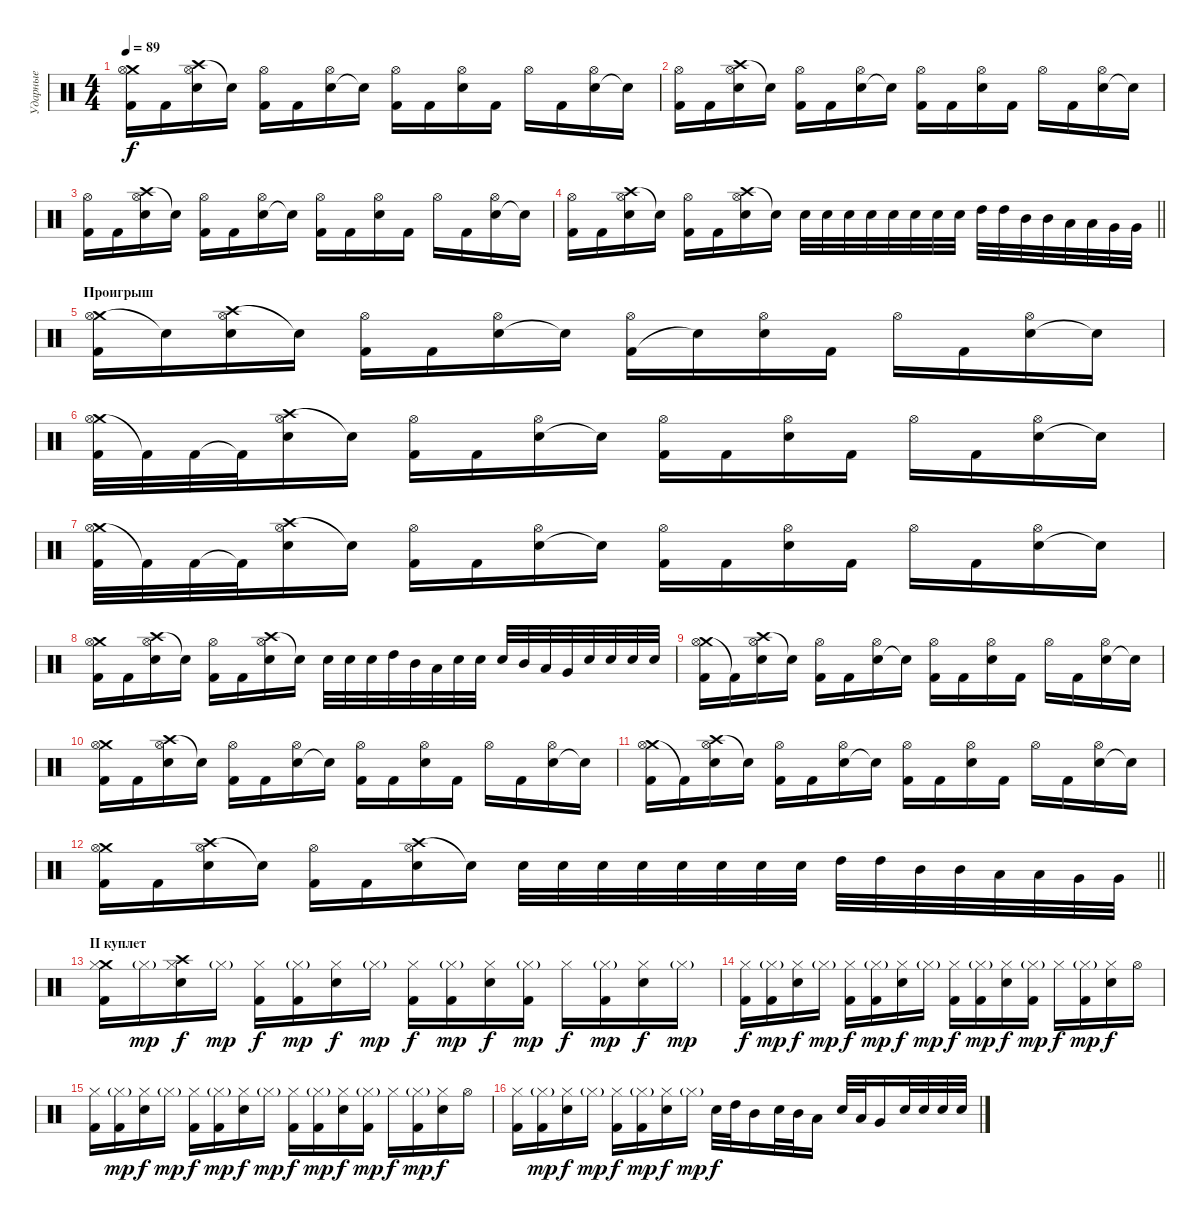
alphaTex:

\track ("Ударные" "Ударные") {instrument percussion}
\staff {score}
\articulation defaults
\ts (4 4)
\tempo 89
\clef neutral
\ks c
("Crash medium (hit)" "Kick (hit) 2" "Hi-Hat (open)").16{dy f} "Kick (hit) 2".16 ("Crash high (hit)" "Electric Snare (hit)" "Hi-Hat (open)").16 "Snare (hit)"{t}.16 ("Kick (hit) 2" "Hi-Hat (open)").16 "Kick (hit) 2".16 ("Electric Snare (hit)" "Hi-Hat (open)").16 "Snare (hit)"{t}.16 ("Kick (hit) 2" "Hi-Hat (open)").16 "Kick (hit) 2".16 ("Electric Snare (hit)" "Hi-Hat (open)").16 "Kick (hit) 2".16 "Hi-Hat (open)".16 "Kick (hit) 2".16 ("Electric Snare (hit)" "Hi-Hat (open)").16 "Snare (hit)"{t}.16 |
("Kick (hit) 2" "Hi-Hat (open)").16 "Kick (hit) 2".16 ("Crash high (hit)" "Electric Snare (hit)" "Hi-Hat (open)").16 "Snare (hit)"{t}.16 ("Kick (hit) 2" "Hi-Hat (open)").16 "Kick (hit) 2".16 ("Electric Snare (hit)" "Hi-Hat (open)").16 "Snare (hit)"{t}.16 ("Kick (hit) 2" "Hi-Hat (open)").16 "Kick (hit) 2".16 ("Electric Snare (hit)" "Hi-Hat (open)").16 "Kick (hit) 2".16 "Hi-Hat (open)".16 "Kick (hit) 2".16 ("Electric Snare (hit)" "Hi-Hat (open)").16 "Snare (hit)"{t}.16 |
("Kick (hit) 2" "Hi-Hat (open)").16 "Kick (hit) 2".16 ("Crash high (hit)" "Electric Snare (hit)" "Hi-Hat (open)").16 "Snare (hit)"{t}.16 ("Kick (hit) 2" "Hi-Hat (open)").16 "Kick (hit) 2".16 ("Electric Snare (hit)" "Hi-Hat (open)").16 "Snare (hit)"{t}.16 ("Kick (hit) 2" "Hi-Hat (open)").16 "Kick (hit) 2".16 ("Electric Snare (hit)" "Hi-Hat (open)").16 "Kick (hit) 2".16 "Hi-Hat (open)".16 "Kick (hit) 2".16 ("Electric Snare (hit)" "Hi-Hat (open)").16 "Snare (hit)"{t}.16 |
\barLineRight lightlight
("Kick (hit) 2" "Hi-Hat (open)").16 "Kick (hit) 2".16 ("Crash high (hit)" "Electric Snare (hit)" "Hi-Hat (open)").16 "Snare (hit)"{t}.16 ("Kick (hit) 2" "Hi-Hat (open)").16 "Kick (hit) 2".16 ("Crash high (hit)" "Electric Snare (hit)" "Hi-Hat (open)").16 "Snare (hit)"{t}.16 "Electric Snare (hit)".32 "Electric Snare (hit)".32 "Electric Snare (hit)".32 "Electric Snare (hit)".32 "Electric Snare (hit)".32 "Electric Snare (hit)".32 "Electric Snare (hit)".32 "Electric Snare (hit)".32 "High Tom (hit)".32 "High Tom (hit)".32 "Mid Tom (hit)".32 "Mid Tom (hit)".32 "Low Tom (hit)".32 "Low Tom (hit)".32 "Very Low Tom (hit)".32 "Very Low Tom (hit)".32 |
\section ("" "Проигрыш")
("Crash medium (hit)" "Kick (hit) 2" "Hi-Hat (open)").16 "Snare (hit)"{t}.16 ("Crash high (hit)" "Electric Snare (hit)" "Hi-Hat (open)").16 "Snare (hit)"{t}.16 ("Kick (hit) 2" "Hi-Hat (open)").16 "Kick (hit) 2".16 ("Electric Snare (hit)" "Hi-Hat (open)").16 "Snare (hit)"{t}.16 ("Kick (hit) 2" "Hi-Hat (open)").16 "Snare (hit)"{t}.16 ("Electric Snare (hit)" "Hi-Hat (open)").16 "Kick (hit) 2".16 "Hi-Hat (open)".16 "Kick (hit) 2".16 ("Electric Snare (hit)" "Hi-Hat (open)").16 "Snare (hit)"{t}.16 |
("Crash medium (hit)" "Kick (hit) 2" "Hi-Hat (open)").32 "Kick (hit) 2"{t}.32 "Kick (hit) 2".32 "Kick (hit) 2"{t}.32 ("Crash high (hit)" "Electric Snare (hit)" "Hi-Hat (open)").16 "Snare (hit)"{t}.16 ("Kick (hit) 2" "Hi-Hat (open)").16 "Kick (hit) 2".16 ("Electric Snare (hit)" "Hi-Hat (open)").16 "Snare (hit)"{t}.16 ("Kick (hit) 2" "Hi-Hat (open)").16 "Kick (hit) 2".16 ("Electric Snare (hit)" "Hi-Hat (open)").16 "Kick (hit) 2".16 "Hi-Hat (open)".16 "Kick (hit) 2".16 ("Electric Snare (hit)" "Hi-Hat (open)").16 "Electric Snare (hit)"{t}.16 |
("Crash medium (hit)" "Kick (hit) 2" "Hi-Hat (open)").32 "Kick (hit) 2"{t}.32 "Kick (hit) 2".32 "Kick (hit) 2"{t}.32 ("Crash high (hit)" "Electric Snare (hit)" "Hi-Hat (open)").16 "Snare (hit)"{t}.16 ("Kick (hit) 2" "Hi-Hat (open)").16 "Kick (hit) 2".16 ("Electric Snare (hit)" "Hi-Hat (open)").16 "Snare (hit)"{t}.16 ("Kick (hit) 2" "Hi-Hat (open)").16 "Kick (hit) 2".16 ("Electric Snare (hit)" "Hi-Hat (open)").16 "Kick (hit) 2".16 "Hi-Hat (open)".16 "Kick (hit) 2".16 ("Electric Snare (hit)" "Hi-Hat (open)").16 "Electric Snare (hit)"{t}.16 |
("Crash medium (hit)" "Kick (hit) 2" "Hi-Hat (open)").16 "Kick (hit) 2".16 ("Crash high (hit)" "Electric Snare (hit)" "Hi-Hat (open)").16 "Snare (hit)"{t}.16 ("Kick (hit) 2" "Hi-Hat (open)").16 "Kick (hit) 2".16 ("Crash high (hit)" "Electric Snare (hit)" "Hi-Hat (open)").16 "Snare (hit)"{t}.16 "Electric Snare (hit)".32 "Electric Snare (hit)".32 "Electric Snare (hit)".32 "High Tom (hit)".32 "Mid Tom (hit)".32 "Low Tom (hit)".32 "Electric Snare (hit)".32 "Electric Snare (hit)".32 "Electric Snare (hit)".32 "Mid Tom (hit)".32 "Low Tom (hit)".32 "Very Low Tom (hit)".32 "Electric Snare (hit)".32 "Electric Snare (hit)".32 "Electric Snare (hit)".32 "Electric Snare (hit)".32 |
("Crash medium (hit)" "Kick (hit) 2" "Hi-Hat (open)").16 "Kick (hit) 2"{t}.16 ("Crash high (hit)" "Electric Snare (hit)" "Hi-Hat (open)").16 "Snare (hit)"{t}.16 ("Kick (hit) 2" "Hi-Hat (open)").16 "Kick (hit) 2".16 ("Electric Snare (hit)" "Hi-Hat (open)").16 "Snare (hit)"{t}.16 ("Kick (hit) 2" "Hi-Hat (open)").16 "Kick (hit) 2".16 ("Electric Snare (hit)" "Hi-Hat (open)").16 "Kick (hit) 2".16 "Hi-Hat (open)".16 "Kick (hit) 2".16 ("Electric Snare (hit)" "Hi-Hat (open)").16 "Snare (hit)"{t}.16 |
("Crash medium (hit)" "Kick (hit) 2" "Hi-Hat (open)").16 "Kick (hit) 2".16 ("Crash high (hit)" "Electric Snare (hit)" "Hi-Hat (open)").16 "Snare (hit)"{t}.16 ("Kick (hit) 2" "Hi-Hat (open)").16 "Kick (hit) 2".16 ("Electric Snare (hit)" "Hi-Hat (open)").16 "Snare (hit)"{t}.16 ("Kick (hit) 2" "Hi-Hat (open)").16 "Kick (hit) 2".16 ("Electric Snare (hit)" "Hi-Hat (open)").16 "Kick (hit) 2".16 "Hi-Hat (open)".16 "Kick (hit) 2".16 ("Electric Snare (hit)" "Hi-Hat (open)").16 "Snare (hit)"{t}.16 |
("Crash medium (hit)" "Kick (hit) 2" "Hi-Hat (open)").16 "Kick (hit) 2"{t}.16 ("Crash high (hit)" "Electric Snare (hit)" "Hi-Hat (open)").16 "Snare (hit)"{t}.16 ("Kick (hit) 2" "Hi-Hat (open)").16 "Kick (hit) 2".16 ("Electric Snare (hit)" "Hi-Hat (open)").16 "Snare (hit)"{t}.16 ("Kick (hit) 2" "Hi-Hat (open)").16 "Kick (hit) 2".16 ("Electric Snare (hit)" "Hi-Hat (open)").16 "Kick (hit) 2".16 "Hi-Hat (open)".16 "Kick (hit) 2".16 ("Electric Snare (hit)" "Hi-Hat (open)").16 "Snare (hit)"{t}.16 |
\barLineRight lightlight
("Crash medium (hit)" "Kick (hit) 2" "Hi-Hat (open)").16 "Kick (hit) 2".16 ("Crash high (hit)" "Electric Snare (hit)" "Hi-Hat (open)").16 "Snare (hit)"{t}.16 ("Kick (hit) 2" "Hi-Hat (open)").16 "Kick (hit) 2".16 ("Crash high (hit)" "Electric Snare (hit)" "Hi-Hat (open)").16 "Snare (hit)"{t}.16 "Electric Snare (hit)".32 "Electric Snare (hit)".32 "Electric Snare (hit)".32 "Electric Snare (hit)".32 "Electric Snare (hit)".32 "Electric Snare (hit)".32 "Electric Snare (hit)".32 "Electric Snare (hit)".32 "High Tom (hit)".32 "High Tom (hit)".32 "Mid Tom (hit)".32 "Mid Tom (hit)".32 "Low Tom (hit)".32 "Low Tom (hit)".32 "Very Low Tom (hit)".32 "Very Low Tom (hit)".32 |
\section ("" "II куплет")
("Crash medium (hit)" "Hi-Hat (closed)" "Kick (hit) 2").16 "Hi-Hat (closed)"{g}.16{dy mp} ("Crash high (hit)" "Hi-Hat (closed)" "Electric Snare (hit)").16{dy f} "Hi-Hat (closed)"{g}.16{dy mp} ("Hi-Hat (closed)" "Kick (hit) 2").16{dy f} ("Hi-Hat (closed)"{g} "Kick (hit) 2").16{dy mp} ("Hi-Hat (closed)" "Electric Snare (hit)").16{dy f} "Hi-Hat (closed)"{g}.16{dy mp} ("Hi-Hat (closed)" "Kick (hit) 2").16{dy f} ("Hi-Hat (closed)"{g} "Kick (hit) 2").16{dy mp} ("Hi-Hat (closed)" "Electric Snare (hit)").16{dy f} ("Hi-Hat (closed)"{g} "Kick (hit) 2").16{dy mp} "Hi-Hat (closed)".16{dy f} ("Hi-Hat (closed)"{g} "Kick (hit) 2").16{dy mp} ("Hi-Hat (closed)" "Electric Snare (hit)").16{dy f} "Hi-Hat (closed)"{g}.16{dy mp} |
("Hi-Hat (closed)" "Kick (hit) 2").16{dy f} ("Hi-Hat (closed)"{g} "Kick (hit) 2").16{dy mp} ("Hi-Hat (closed)" "Electric Snare (hit)").16{dy f} "Hi-Hat (closed)"{g}.16{dy mp} ("Hi-Hat (closed)" "Kick (hit) 2").16{dy f} ("Hi-Hat (closed)"{g} "Kick (hit) 2").16{dy mp} ("Hi-Hat (closed)" "Electric Snare (hit)").16{dy f} "Hi-Hat (closed)"{g}.16{dy mp} ("Hi-Hat (closed)" "Kick (hit) 2").16{dy f} ("Hi-Hat (closed)"{g} "Kick (hit) 2").16{dy mp} ("Hi-Hat (closed)" "Electric Snare (hit)").16{dy f} ("Hi-Hat (closed)"{g} "Kick (hit) 2").16{dy mp} "Hi-Hat (closed)".16{dy f} ("Hi-Hat (closed)"{g} "Kick (hit) 2").16{dy mp} ("Hi-Hat (closed)" "Electric Snare (hit)").16{dy f} "Hi-Hat (open)".16 |
("Hi-Hat (closed)" "Kick (hit) 2").16 ("Hi-Hat (closed)"{g} "Kick (hit) 2").16{dy mp} ("Hi-Hat (closed)" "Electric Snare (hit)").16{dy f} "Hi-Hat (closed)"{g}.16{dy mp} ("Hi-Hat (closed)" "Kick (hit) 2").16{dy f} ("Hi-Hat (closed)"{g} "Kick (hit) 2").16{dy mp} ("Hi-Hat (closed)" "Electric Snare (hit)").16{dy f} "Hi-Hat (closed)"{g}.16{dy mp} ("Hi-Hat (closed)" "Kick (hit) 2").16{dy f} ("Hi-Hat (closed)"{g} "Kick (hit) 2").16{dy mp} ("Hi-Hat (closed)" "Electric Snare (hit)").16{dy f} ("Hi-Hat (closed)"{g} "Kick (hit) 2").16{dy mp} "Hi-Hat (closed)".16{dy f} ("Hi-Hat (closed)"{g} "Kick (hit) 2").16{dy mp} ("Hi-Hat (closed)" "Electric Snare (hit)").16{dy f} "Hi-Hat (open)".16 |
("Hi-Hat (closed)" "Kick (hit) 2").16 ("Hi-Hat (closed)"{g} "Kick (hit) 2").16{dy mp} ("Hi-Hat (closed)" "Electric Snare (hit)").16{dy f} "Hi-Hat (closed)"{g}.16{dy mp} ("Hi-Hat (closed)" "Kick (hit) 2").16{dy f} ("Hi-Hat (closed)"{g} "Kick (hit) 2").16{dy mp} ("Hi-Hat (closed)" "Electric Snare (hit)").16{dy f} "Hi-Hat (closed)"{g}.16{dy mp} "Electric Snare (hit)".32{dy f} "High Tom (hit)".32 "Mid Tom (hit)".16 "Electric Snare (hit)".32 "Mid Tom (hit)".32 "Low Tom (hit)".16 "Electric Snare (hit)".32 "Low Tom (hit)".32 "Very Low Tom (hit)".16 "Electric Snare (hit)".32 "Electric Snare (hit)".32 "Electric Snare (hit)".32 "Electric Snare (hit)".32
